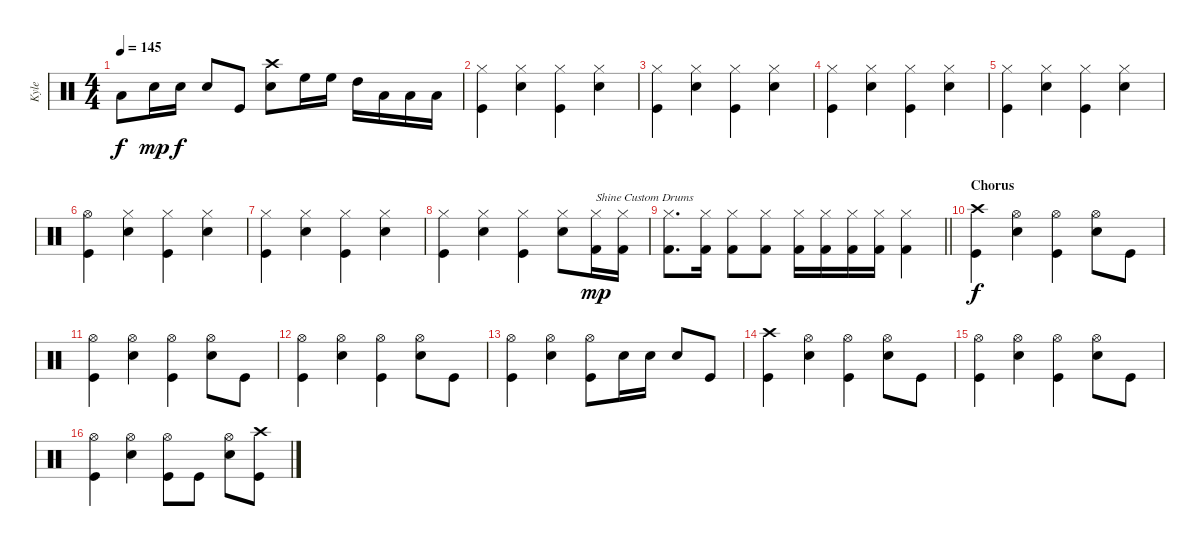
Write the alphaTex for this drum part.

\track ("Kyle" "Kyle") {instrument percussion}
\staff {score}
\articulation defaults
\ts (4 4)
\tempo 145
\clef neutral
\ks c "Low Floor Tom (hit)".8{dy f} "Electric Snare (hit)".16{dy mp} "Electric Snare (hit)".16{dy f} "Electric Snare (hit)".8 "Kick (hit)".8
("Crash high (hit)" "Electric Snare (hit)").8 "High Floor Tom (hit)".16 "High Floor Tom (hit)".16 "High Tom (hit)".16 "Low Tom (hit)".16 "Low Floor Tom (hit)".16 "Low Floor Tom (hit)".16 |
("Hi-Hat (closed)" "Kick (hit)").4 ("Hi-Hat (closed)" "Electric Snare (hit)").4 ("Hi-Hat (closed)" "Kick (hit)").4 ("Hi-Hat (closed)" "Electric Snare (hit)").4 |
("Hi-Hat (closed)" "Kick (hit)").4 ("Hi-Hat (closed)" "Electric Snare (hit)").4 ("Hi-Hat (closed)" "Kick (hit)").4 ("Hi-Hat (closed)" "Electric Snare (hit)").4 |
("Hi-Hat (closed)" "Kick (hit)").4 ("Hi-Hat (closed)" "Electric Snare (hit)").4 ("Hi-Hat (closed)" "Kick (hit)").4 ("Hi-Hat (closed)" "Electric Snare (hit)").4 |
("Hi-Hat (closed)" "Kick (hit)").4 ("Hi-Hat (closed)" "Electric Snare (hit)").4 ("Hi-Hat (closed)" "Kick (hit)").4 ("Hi-Hat (closed)" "Electric Snare (hit)").4 |
("Hi-Hat (open)" "Kick (hit)").4 ("Hi-Hat (closed)" "Electric Snare (hit)").4 ("Hi-Hat (closed)" "Kick (hit)").4 ("Hi-Hat (closed)" "Electric Snare (hit)").4 |
("Hi-Hat (closed)" "Kick (hit)").4 ("Hi-Hat (closed)" "Electric Snare (hit)").4 ("Hi-Hat (closed)" "Kick (hit)").4 ("Hi-Hat (closed)" "Electric Snare (hit)").4 |
("Hi-Hat (closed)" "Kick (hit)").4 ("Hi-Hat (closed)" "Electric Snare (hit)").4 ("Hi-Hat (closed)" "Kick (hit)").4 ("Hi-Hat (closed)" "Electric Snare (hit)").8 ("Kick (hit) 2" "Hi-Hat (closed)").16{txt "Shine Custom Drums" dy mp volume 12} ("Kick (hit) 2" "Hi-Hat (closed)").16 |
\barLineRight lightlight
("Kick (hit) 2" "Hi-Hat (closed)").8{d} ("Kick (hit) 2" "Hi-Hat (closed)").16 ("Kick (hit) 2" "Hi-Hat (closed)").8 ("Kick (hit) 2" "Hi-Hat (closed)").8 ("Kick (hit) 2" "Hi-Hat (closed)").16 ("Kick (hit) 2" "Hi-Hat (closed)").16 ("Kick (hit) 2" "Hi-Hat (closed)").16 ("Kick (hit) 2" "Hi-Hat (closed)").16 ("Kick (hit) 2" "Hi-Hat (closed)").4 |
\section ("" "Chorus")
("Crash high (hit)" "Kick (hit)").4{dy f volume 16} ("Hi-Hat (open)" "Electric Snare (hit)").4 ("Hi-Hat (open)" "Kick (hit)").4 ("Hi-Hat (open)" "Electric Snare (hit)").8 "Kick (hit)".8 |
("Hi-Hat (open)" "Kick (hit)").4 ("Hi-Hat (open)" "Electric Snare (hit)").4 ("Hi-Hat (open)" "Kick (hit)").4 ("Hi-Hat (open)" "Electric Snare (hit)").8 "Kick (hit)".8 |
("Hi-Hat (open)" "Kick (hit)").4 ("Hi-Hat (open)" "Electric Snare (hit)").4 ("Hi-Hat (open)" "Kick (hit)").4 ("Hi-Hat (open)" "Electric Snare (hit)").8 "Kick (hit)".8 |
("Hi-Hat (open)" "Kick (hit)").4 ("Hi-Hat (open)" "Electric Snare (hit)").4 ("Hi-Hat (open)" "Kick (hit)").8 "Electric Snare (hit)".16 "Electric Snare (hit)".16 "Electric Snare (hit)".8 "Kick (hit)".8 |
("Crash high (hit)" "Kick (hit)").4 ("Hi-Hat (open)" "Electric Snare (hit)").4 ("Hi-Hat (open)" "Kick (hit)").4 ("Hi-Hat (open)" "Electric Snare (hit)").8 "Kick (hit)".8 |
("Hi-Hat (open)" "Kick (hit)").4 ("Hi-Hat (open)" "Electric Snare (hit)").4 ("Hi-Hat (open)" "Kick (hit)").4 ("Hi-Hat (open)" "Electric Snare (hit)").8 "Kick (hit)".8 |
("Hi-Hat (open)" "Kick (hit)").4 ("Hi-Hat (open)" "Electric Snare (hit)").4 ("Hi-Hat (open)" "Kick (hit)").8 "Kick (hit)".8 ("Hi-Hat (open)" "Electric Snare (hit)").8 ("Crash high (hit)" "Kick (hit)").8
